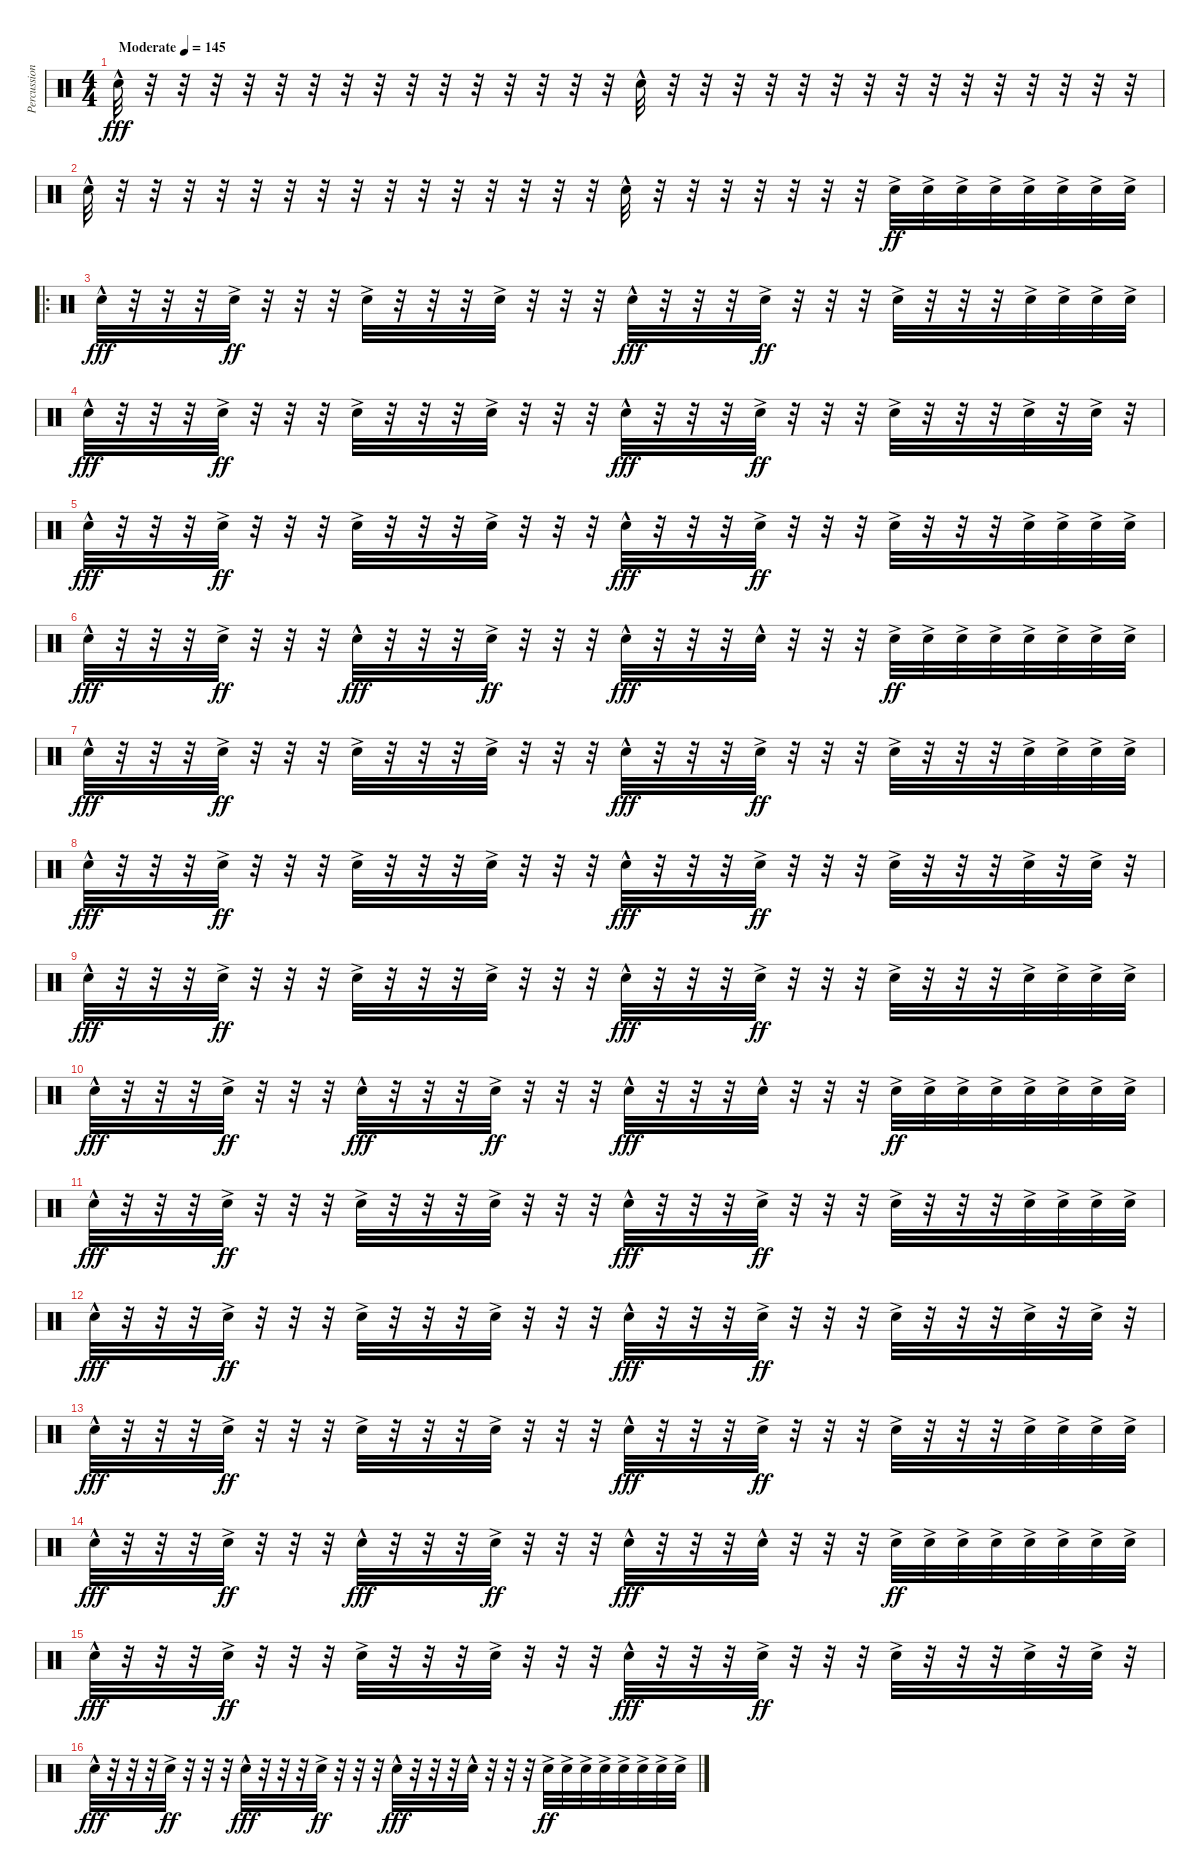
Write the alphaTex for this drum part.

\track ("Percussion" "Percussion") {instrument percussion}
\staff {score}
\articulation defaults
\ts (4 4)
\tempo (145 "Moderate")
\clef neutral
\ks c "Snare (hit) 2"{hac}.32{dy fff}
r.32 r.32 r.32 r.32 r.32 r.32 r.32 r.32 r.32 r.32 r.32 r.32 r.32 r.32 r.32 "Snare (hit) 2"{hac}.32 r.32 r.32 r.32 r.32 r.32 r.32 r.32 r.32 r.32 r.32 r.32 r.32 r.32 r.32 r.32 |
"Snare (hit) 2"{hac}.32 r.32 r.32 r.32 r.32 r.32 r.32 r.32 r.32 r.32 r.32 r.32 r.32 r.32 r.32 r.32 "Snare (hit) 2"{hac}.32 r.32 r.32 r.32 r.32 r.32 r.32 r.32 "Snare (hit) 2"{ac}.32{dy ff} "Snare (hit) 2"{ac}.32 "Snare (hit) 2"{ac}.32 "Snare (hit) 2"{ac}.32 "Snare (hit) 2"{ac}.32 "Snare (hit) 2"{ac}.32 "Snare (hit) 2"{ac}.32 "Snare (hit) 2"{ac}.32 |
\ro "Snare (hit) 2"{hac}.32{dy fff}
r.32 r.32 r.32 "Snare (hit) 2"{ac}.32{dy ff} r.32 r.32 r.32 "Snare (hit) 2"{ac}.32 r.32 r.32 r.32 "Snare (hit) 2"{ac}.32 r.32 r.32 r.32 "Snare (hit) 2"{hac}.32{dy fff} r.32 r.32 r.32 "Snare (hit) 2"{ac}.32{dy ff} r.32 r.32 r.32 "Snare (hit) 2"{ac}.32 r.32 r.32 r.32 "Snare (hit) 2"{ac}.32 "Snare (hit) 2"{ac}.32 "Snare (hit) 2"{ac}.32 "Snare (hit) 2"{ac}.32 |
"Snare (hit) 2"{hac}.32{dy fff} r.32 r.32 r.32 "Snare (hit) 2"{ac}.32{dy ff} r.32 r.32 r.32 "Snare (hit) 2"{ac}.32 r.32 r.32 r.32 "Snare (hit) 2"{ac}.32 r.32 r.32 r.32 "Snare (hit) 2"{hac}.32{dy fff} r.32 r.32 r.32 "Snare (hit) 2"{ac}.32{dy ff} r.32 r.32 r.32 "Snare (hit) 2"{ac}.32 r.32 r.32 r.32 "Snare (hit) 2"{ac}.32 r.32 "Snare (hit) 2"{ac}.32 r.32 |
"Snare (hit) 2"{hac}.32{dy fff} r.32 r.32 r.32 "Snare (hit) 2"{ac}.32{dy ff} r.32 r.32 r.32 "Snare (hit) 2"{ac}.32 r.32 r.32 r.32 "Snare (hit) 2"{ac}.32 r.32 r.32 r.32 "Snare (hit) 2"{hac}.32{dy fff} r.32 r.32 r.32 "Snare (hit) 2"{ac}.32{dy ff} r.32 r.32 r.32 "Snare (hit) 2"{ac}.32 r.32 r.32 r.32 "Snare (hit) 2"{ac}.32 "Snare (hit) 2"{ac}.32 "Snare (hit) 2"{ac}.32 "Snare (hit) 2"{ac}.32 |
"Snare (hit) 2"{hac}.32{dy fff} r.32 r.32 r.32 "Snare (hit) 2"{ac}.32{dy ff} r.32 r.32 r.32 "Snare (hit) 2"{hac}.32{dy fff} r.32 r.32 r.32 "Snare (hit) 2"{ac}.32{dy ff} r.32 r.32 r.32 "Snare (hit) 2"{hac}.32{dy fff} r.32 r.32 r.32 "Snare (hit) 2"{hac}.32 r.32 r.32 r.32 "Snare (hit) 2"{ac}.32{dy ff} "Snare (hit) 2"{ac}.32 "Snare (hit) 2"{ac}.32 "Snare (hit) 2"{ac}.32 "Snare (hit) 2"{ac}.32 "Snare (hit) 2"{ac}.32 "Snare (hit) 2"{ac}.32 "Snare (hit) 2"{ac}.32 |
"Snare (hit) 2"{hac}.32{dy fff} r.32 r.32 r.32 "Snare (hit) 2"{ac}.32{dy ff} r.32 r.32 r.32 "Snare (hit) 2"{ac}.32 r.32 r.32 r.32 "Snare (hit) 2"{ac}.32 r.32 r.32 r.32 "Snare (hit) 2"{hac}.32{dy fff} r.32 r.32 r.32 "Snare (hit) 2"{ac}.32{dy ff} r.32 r.32 r.32 "Snare (hit) 2"{ac}.32 r.32 r.32 r.32 "Snare (hit) 2"{ac}.32 "Snare (hit) 2"{ac}.32 "Snare (hit) 2"{ac}.32 "Snare (hit) 2"{ac}.32 |
"Snare (hit) 2"{hac}.32{dy fff} r.32 r.32 r.32 "Snare (hit) 2"{ac}.32{dy ff} r.32 r.32 r.32 "Snare (hit) 2"{ac}.32 r.32 r.32 r.32 "Snare (hit) 2"{ac}.32 r.32 r.32 r.32 "Snare (hit) 2"{hac}.32{dy fff} r.32 r.32 r.32 "Snare (hit) 2"{ac}.32{dy ff} r.32 r.32 r.32 "Snare (hit) 2"{ac}.32 r.32 r.32 r.32 "Snare (hit) 2"{ac}.32 r.32 "Snare (hit) 2"{ac}.32 r.32 |
"Snare (hit) 2"{hac}.32{dy fff} r.32 r.32 r.32 "Snare (hit) 2"{ac}.32{dy ff} r.32 r.32 r.32 "Snare (hit) 2"{ac}.32 r.32 r.32 r.32 "Snare (hit) 2"{ac}.32 r.32 r.32 r.32 "Snare (hit) 2"{hac}.32{dy fff} r.32 r.32 r.32 "Snare (hit) 2"{ac}.32{dy ff} r.32 r.32 r.32 "Snare (hit) 2"{ac}.32 r.32 r.32 r.32 "Snare (hit) 2"{ac}.32 "Snare (hit) 2"{ac}.32 "Snare (hit) 2"{ac}.32 "Snare (hit) 2"{ac}.32 |
"Snare (hit) 2"{hac}.32{dy fff} r.32 r.32 r.32 "Snare (hit) 2"{ac}.32{dy ff} r.32 r.32 r.32 "Snare (hit) 2"{hac}.32{dy fff} r.32 r.32 r.32 "Snare (hit) 2"{ac}.32{dy ff} r.32 r.32 r.32 "Snare (hit) 2"{hac}.32{dy fff} r.32 r.32 r.32 "Snare (hit) 2"{hac}.32 r.32 r.32 r.32 "Snare (hit) 2"{ac}.32{dy ff} "Snare (hit) 2"{ac}.32 "Snare (hit) 2"{ac}.32 "Snare (hit) 2"{ac}.32 "Snare (hit) 2"{ac}.32 "Snare (hit) 2"{ac}.32 "Snare (hit) 2"{ac}.32 "Snare (hit) 2"{ac}.32 |
"Snare (hit) 2"{hac}.32{dy fff} r.32 r.32 r.32 "Snare (hit) 2"{ac}.32{dy ff} r.32 r.32 r.32 "Snare (hit) 2"{ac}.32 r.32 r.32 r.32 "Snare (hit) 2"{ac}.32 r.32 r.32 r.32 "Snare (hit) 2"{hac}.32{dy fff} r.32 r.32 r.32 "Snare (hit) 2"{ac}.32{dy ff} r.32 r.32 r.32 "Snare (hit) 2"{ac}.32 r.32 r.32 r.32 "Snare (hit) 2"{ac}.32 "Snare (hit) 2"{ac}.32 "Snare (hit) 2"{ac}.32 "Snare (hit) 2"{ac}.32 |
"Snare (hit) 2"{hac}.32{dy fff} r.32 r.32 r.32 "Snare (hit) 2"{ac}.32{dy ff} r.32 r.32 r.32 "Snare (hit) 2"{ac}.32 r.32 r.32 r.32 "Snare (hit) 2"{ac}.32 r.32 r.32 r.32 "Snare (hit) 2"{hac}.32{dy fff} r.32 r.32 r.32 "Snare (hit) 2"{ac}.32{dy ff} r.32 r.32 r.32 "Snare (hit) 2"{ac}.32 r.32 r.32 r.32 "Snare (hit) 2"{ac}.32 r.32 "Snare (hit) 2"{ac}.32 r.32 |
"Snare (hit) 2"{hac}.32{dy fff} r.32 r.32 r.32 "Snare (hit) 2"{ac}.32{dy ff} r.32 r.32 r.32 "Snare (hit) 2"{ac}.32 r.32 r.32 r.32 "Snare (hit) 2"{ac}.32 r.32 r.32 r.32 "Snare (hit) 2"{hac}.32{dy fff} r.32 r.32 r.32 "Snare (hit) 2"{ac}.32{dy ff} r.32 r.32 r.32 "Snare (hit) 2"{ac}.32 r.32 r.32 r.32 "Snare (hit) 2"{ac}.32 "Snare (hit) 2"{ac}.32 "Snare (hit) 2"{ac}.32 "Snare (hit) 2"{ac}.32 |
"Snare (hit) 2"{hac}.32{dy fff} r.32 r.32 r.32 "Snare (hit) 2"{ac}.32{dy ff} r.32 r.32 r.32 "Snare (hit) 2"{hac}.32{dy fff} r.32 r.32 r.32 "Snare (hit) 2"{ac}.32{dy ff} r.32 r.32 r.32 "Snare (hit) 2"{hac}.32{dy fff} r.32 r.32 r.32 "Snare (hit) 2"{hac}.32 r.32 r.32 r.32 "Snare (hit) 2"{ac}.32{dy ff} "Snare (hit) 2"{ac}.32 "Snare (hit) 2"{ac}.32 "Snare (hit) 2"{ac}.32 "Snare (hit) 2"{ac}.32 "Snare (hit) 2"{ac}.32 "Snare (hit) 2"{ac}.32 "Snare (hit) 2"{ac}.32 |
"Snare (hit) 2"{hac}.32{dy fff} r.32 r.32 r.32 "Snare (hit) 2"{ac}.32{dy ff} r.32 r.32 r.32 "Snare (hit) 2"{ac}.32 r.32 r.32 r.32 "Snare (hit) 2"{ac}.32 r.32 r.32 r.32 "Snare (hit) 2"{hac}.32{dy fff} r.32 r.32 r.32 "Snare (hit) 2"{ac}.32{dy ff} r.32 r.32 r.32 "Snare (hit) 2"{ac}.32 r.32 r.32 r.32 "Snare (hit) 2"{ac}.32 r.32 "Snare (hit) 2"{ac}.32 r.32 |
"Snare (hit) 2"{hac}.32{dy fff} r.32 r.32 r.32 "Snare (hit) 2"{ac}.32{dy ff} r.32 r.32 r.32 "Snare (hit) 2"{hac}.32{dy fff} r.32 r.32 r.32 "Snare (hit) 2"{ac}.32{dy ff} r.32 r.32 r.32 "Snare (hit) 2"{hac}.32{dy fff} r.32 r.32 r.32 "Snare (hit) 2"{hac}.32 r.32 r.32 r.32 "Snare (hit) 2"{ac}.32{dy ff} "Snare (hit) 2"{ac}.32 "Snare (hit) 2"{ac}.32 "Snare (hit) 2"{ac}.32 "Snare (hit) 2"{ac}.32 "Snare (hit) 2"{ac}.32 "Snare (hit) 2"{ac}.32 "Snare (hit) 2"{ac}.32
